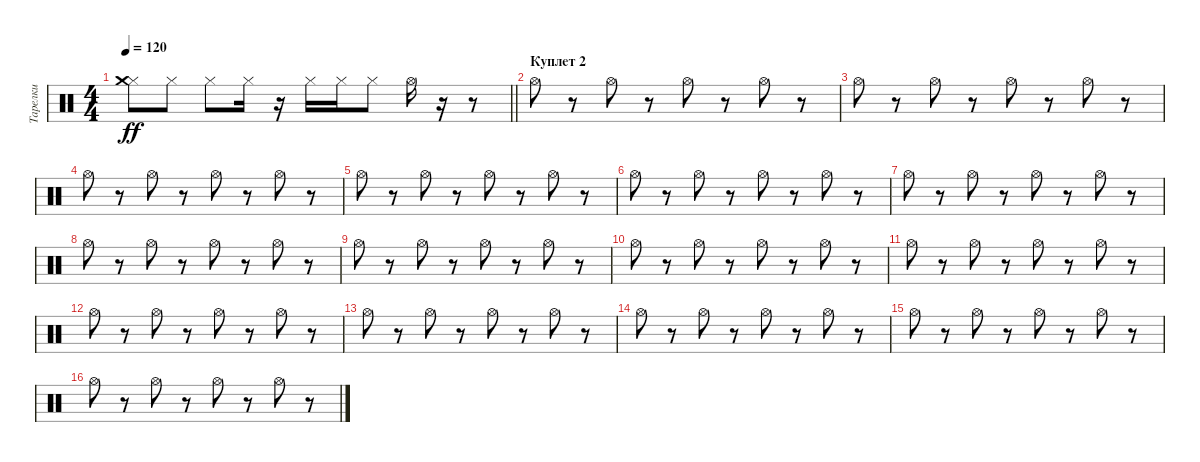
\track ("Тарелки" "Тарелки") {instrument percussion}
\staff {score}
\articulation defaults
\ts (4 4)
\tempo 120
\clef neutral
\barLineRight lightlight
\ks c
("Hi-Hat (closed)" "Crash medium (hit)").8{dy ff} "Hi-Hat (closed)".8 "Hi-Hat (closed)".8 "Hi-Hat (closed)".16 r.16 "Hi-Hat (closed)".16 "Hi-Hat (closed)".16 "Hi-Hat (closed)".8 "Hi-Hat (open)".16 r.16 r.8 |
\section ("" "Куплет 2")
"Hi-Hat (open)".8 r.8 "Hi-Hat (open)".8 r.8 "Hi-Hat (open)".8 r.8 "Hi-Hat (open)".8 r.8 |
"Hi-Hat (open)".8 r.8 "Hi-Hat (open)".8 r.8 "Hi-Hat (open)".8 r.8 "Hi-Hat (open)".8 r.8 |
"Hi-Hat (open)".8 r.8 "Hi-Hat (open)".8 r.8 "Hi-Hat (open)".8 r.8 "Hi-Hat (open)".8 r.8 |
"Hi-Hat (open)".8 r.8 "Hi-Hat (open)".8 r.8 "Hi-Hat (open)".8 r.8 "Hi-Hat (open)".8 r.8 |
"Hi-Hat (open)".8 r.8 "Hi-Hat (open)".8 r.8 "Hi-Hat (open)".8 r.8 "Hi-Hat (open)".8 r.8 |
"Hi-Hat (open)".8 r.8 "Hi-Hat (open)".8 r.8 "Hi-Hat (open)".8 r.8 "Hi-Hat (open)".8 r.8 |
"Hi-Hat (open)".8 r.8 "Hi-Hat (open)".8 r.8 "Hi-Hat (open)".8 r.8 "Hi-Hat (open)".8 r.8 |
"Hi-Hat (open)".8 r.8 "Hi-Hat (open)".8 r.8 "Hi-Hat (open)".8 r.8 "Hi-Hat (open)".8 r.8 |
"Hi-Hat (open)".8 r.8 "Hi-Hat (open)".8 r.8 "Hi-Hat (open)".8 r.8 "Hi-Hat (open)".8 r.8 |
"Hi-Hat (open)".8 r.8 "Hi-Hat (open)".8 r.8 "Hi-Hat (open)".8 r.8 "Hi-Hat (open)".8 r.8 |
"Hi-Hat (open)".8 r.8 "Hi-Hat (open)".8 r.8 "Hi-Hat (open)".8 r.8 "Hi-Hat (open)".8 r.8 |
"Hi-Hat (open)".8 r.8 "Hi-Hat (open)".8 r.8 "Hi-Hat (open)".8 r.8 "Hi-Hat (open)".8 r.8 |
"Hi-Hat (open)".8 r.8 "Hi-Hat (open)".8 r.8 "Hi-Hat (open)".8 r.8 "Hi-Hat (open)".8 r.8 |
"Hi-Hat (open)".8 r.8 "Hi-Hat (open)".8 r.8 "Hi-Hat (open)".8 r.8 "Hi-Hat (open)".8 r.8 |
"Hi-Hat (open)".8 r.8 "Hi-Hat (open)".8 r.8 "Hi-Hat (open)".8 r.8 "Hi-Hat (open)".8 r.8
